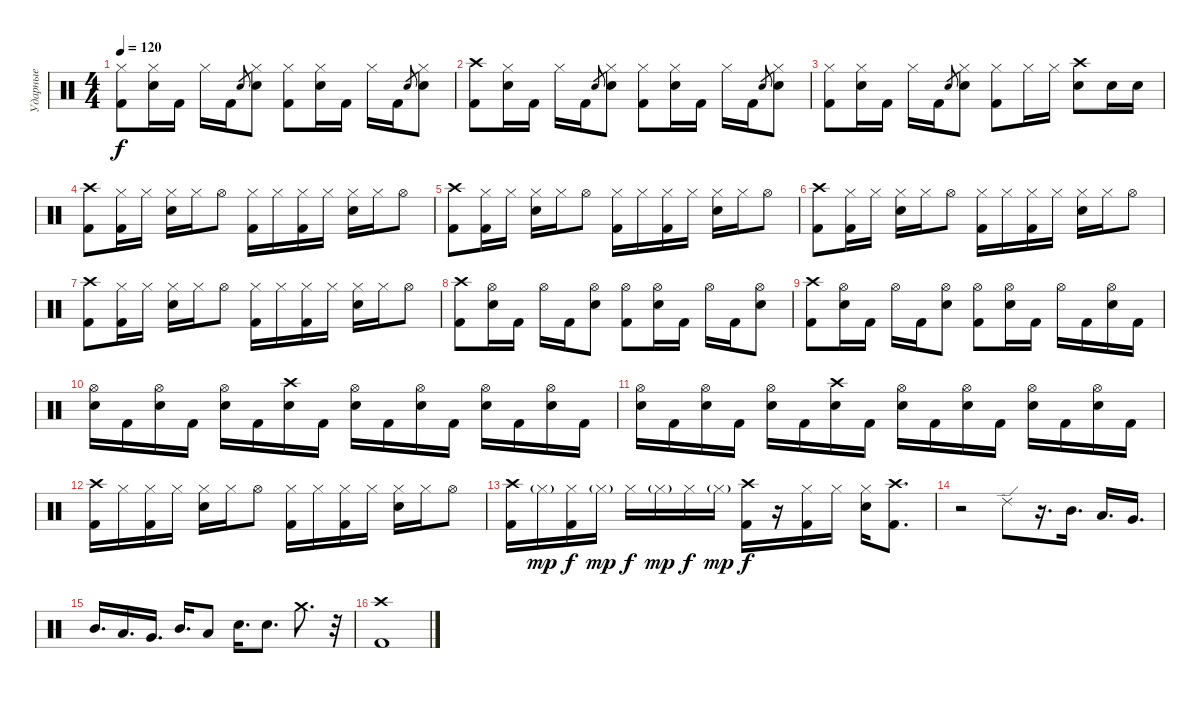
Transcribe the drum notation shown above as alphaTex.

\track ("Ударные" "Ударные") {instrument percussion}
\staff {score}
\articulation defaults
\ts (4 4)
\tempo 120
\clef neutral
\ks c
("Kick (hit) 2" "Hi-Hat (closed)").8{dy f} ("Electric Snare (hit)" "Hi-Hat (closed)").16 "Kick (hit) 2".16 "Hi-Hat (closed)".16 "Kick (hit) 2".16 "Electric Snare (hit)".8{gr} ("Electric Snare (hit)" "Hi-Hat (closed)").8 ("Kick (hit) 2" "Hi-Hat (closed)").8 ("Electric Snare (hit)" "Hi-Hat (closed)").16 "Kick (hit) 2".16 "Hi-Hat (closed)".16 "Kick (hit) 2".16 "Electric Snare (hit)".8{gr} ("Electric Snare (hit)" "Hi-Hat (closed)").8 |
("Kick (hit) 2" "Crash high (hit)").8 ("Electric Snare (hit)" "Hi-Hat (closed)").16 "Kick (hit) 2".16 "Hi-Hat (closed)".16 "Kick (hit) 2".16 "Electric Snare (hit)".8{gr} ("Electric Snare (hit)" "Hi-Hat (closed)").8 ("Kick (hit) 2" "Hi-Hat (closed)").8 ("Electric Snare (hit)" "Hi-Hat (closed)").16 "Kick (hit) 2".16 "Hi-Hat (closed)".16 "Kick (hit) 2".16 "Electric Snare (hit)".8{gr} ("Electric Snare (hit)" "Hi-Hat (closed)").8 |
("Kick (hit) 2" "Hi-Hat (closed)").8 ("Electric Snare (hit)" "Hi-Hat (closed)").16 "Kick (hit) 2".16 "Hi-Hat (closed)".16 "Kick (hit) 2".16 "Electric Snare (hit)".8{gr} ("Electric Snare (hit)" "Hi-Hat (closed)").8 ("Kick (hit) 2" "Hi-Hat (closed)").8 "Hi-Hat (closed)".16 "Hi-Hat (closed)".16 ("Electric Snare (hit)" "Crash high (hit)").8 "Electric Snare (hit)".16 "Electric Snare (hit)".16 |
("Kick (hit) 2" "Crash high (hit)").8 ("Kick (hit) 2" "Hi-Hat (closed)").16 "Hi-Hat (closed)".16 ("Electric Snare (hit)" "Hi-Hat (closed)").16 "Hi-Hat (closed)".16 "Hi-Hat (open)".8 ("Kick (hit) 2" "Hi-Hat (closed)").16 "Hi-Hat (closed)".16 ("Kick (hit) 2" "Hi-Hat (closed)").16 "Hi-Hat (closed)".16 ("Electric Snare (hit)" "Hi-Hat (closed)").16 "Hi-Hat (closed)".16 "Hi-Hat (open)".8 |
("Kick (hit) 2" "Crash high (hit)").8 ("Kick (hit) 2" "Hi-Hat (closed)").16 "Hi-Hat (closed)".16 ("Electric Snare (hit)" "Hi-Hat (closed)").16 "Hi-Hat (closed)".16 "Hi-Hat (open)".8 ("Kick (hit) 2" "Hi-Hat (closed)").16 "Hi-Hat (closed)".16 ("Kick (hit) 2" "Hi-Hat (closed)").16 "Hi-Hat (closed)".16 ("Electric Snare (hit)" "Hi-Hat (closed)").16 "Hi-Hat (closed)".16 "Hi-Hat (open)".8 |
("Kick (hit) 2" "Crash high (hit)").8 ("Kick (hit) 2" "Hi-Hat (closed)").16 "Hi-Hat (closed)".16 ("Electric Snare (hit)" "Hi-Hat (closed)").16 "Hi-Hat (closed)".16 "Hi-Hat (open)".8 ("Kick (hit) 2" "Hi-Hat (closed)").16 "Hi-Hat (closed)".16 ("Kick (hit) 2" "Hi-Hat (closed)").16 "Hi-Hat (closed)".16 ("Electric Snare (hit)" "Hi-Hat (closed)").16 "Hi-Hat (closed)".16 "Hi-Hat (open)".8 |
("Kick (hit) 2" "Crash high (hit)").8 ("Kick (hit) 2" "Hi-Hat (closed)").16 "Hi-Hat (closed)".16 ("Electric Snare (hit)" "Hi-Hat (closed)").16 "Hi-Hat (closed)".16 "Hi-Hat (open)".8 ("Kick (hit) 2" "Hi-Hat (closed)").16 "Hi-Hat (closed)".16 ("Kick (hit) 2" "Hi-Hat (closed)").16 "Hi-Hat (closed)".16 ("Electric Snare (hit)" "Hi-Hat (closed)").16 "Hi-Hat (closed)".16 "Hi-Hat (open)".8 |
("Kick (hit) 2" "Crash high (hit)").8 ("Electric Snare (hit)" "Hi-Hat (open)").16 "Kick (hit) 2".16 "Hi-Hat (open)".16 "Kick (hit) 2".16 ("Electric Snare (hit)" "Hi-Hat (open)").8 ("Kick (hit) 2" "Hi-Hat (open)").8 ("Electric Snare (hit)" "Hi-Hat (open)").16 "Kick (hit) 2".16 "Hi-Hat (open)".16 "Kick (hit) 2".16 ("Electric Snare (hit)" "Hi-Hat (open)").8 |
("Kick (hit) 2" "Crash high (hit)").8 ("Electric Snare (hit)" "Hi-Hat (open)").16 "Kick (hit) 2".16 "Hi-Hat (open)".16 "Kick (hit) 2".16 ("Electric Snare (hit)" "Hi-Hat (open)").8 ("Kick (hit) 2" "Hi-Hat (open)").8 ("Electric Snare (hit)" "Hi-Hat (open)").16 "Kick (hit) 2".16 "Hi-Hat (open)".16 "Kick (hit) 2".16 ("Electric Snare (hit)" "Hi-Hat (open)").16 "Kick (hit) 2".16 |
("Electric Snare (hit)" "Hi-Hat (open)").16 "Kick (hit) 2".16 ("Electric Snare (hit)" "Hi-Hat (open)").16 "Kick (hit) 2".16 ("Electric Snare (hit)" "Hi-Hat (open)").16 "Kick (hit) 2".16 ("Electric Snare (hit)" "Crash high (hit)").16 "Kick (hit) 2".16 ("Electric Snare (hit)" "Hi-Hat (open)").16 "Kick (hit) 2".16 ("Electric Snare (hit)" "Hi-Hat (open)").16 "Kick (hit) 2".16 ("Electric Snare (hit)" "Hi-Hat (open)").16 "Kick (hit) 2".16 ("Electric Snare (hit)" "Hi-Hat (open)").16 "Kick (hit) 2".16 |
("Electric Snare (hit)" "Hi-Hat (open)").16 "Kick (hit) 2".16 ("Electric Snare (hit)" "Hi-Hat (open)").16 "Kick (hit) 2".16 ("Electric Snare (hit)" "Hi-Hat (open)").16 "Kick (hit) 2".16 ("Electric Snare (hit)" "Crash high (hit)").16 "Kick (hit) 2".16 ("Electric Snare (hit)" "Hi-Hat (open)").16 "Kick (hit) 2".16 ("Electric Snare (hit)" "Hi-Hat (open)").16 "Kick (hit) 2".16 ("Electric Snare (hit)" "Hi-Hat (open)").16 "Kick (hit) 2".16 ("Electric Snare (hit)" "Hi-Hat (open)").16 "Kick (hit) 2".16 |
("Kick (hit) 2" "Crash high (hit)").16 "Hi-Hat (closed)".16 ("Kick (hit) 2" "Hi-Hat (closed)").16 "Hi-Hat (closed)".16 ("Electric Snare (hit)" "Hi-Hat (closed)").16 "Hi-Hat (closed)".16 "Hi-Hat (open)".8 ("Kick (hit) 2" "Hi-Hat (closed)").16 "Hi-Hat (closed)".16 ("Kick (hit) 2" "Hi-Hat (closed)").16 "Hi-Hat (closed)".16 ("Electric Snare (hit)" "Hi-Hat (closed)").16 "Hi-Hat (closed)".16 "Hi-Hat (open)".8 |
("Kick (hit) 2" "Crash high (hit)").16 "Hi-Hat (closed)"{g}.16{dy mp} ("Kick (hit) 2" "Hi-Hat (closed)").16{dy f} "Hi-Hat (closed)"{g}.16{dy mp} "Hi-Hat (closed)".16{dy f} "Hi-Hat (closed)"{g}.16{dy mp} "Hi-Hat (closed)".16{dy f} "Hi-Hat (closed)"{g}.16{dy mp} ("Kick (hit) 2" "Crash high (hit)").16{dy f} r.16 ("Kick (hit) 2" "Hi-Hat (closed)").16 "Hi-Hat (closed)".16 ("Electric Snare (hit)" "Hi-Hat (closed)").16 ("Kick (hit) 2" "Crash high (hit)").8{d} |
r.2 "Ride (edge) 2".8 r.16{d} "Mid Tom (hit)".16{d} "Low Tom (hit)".16{d} "Very Low Tom (hit)".16{d} |
"Mid Tom (hit)".16{d} "Low Tom (hit)".16{d} "Very Low Tom (hit)".16{d} "Mid Tom (hit)".16{d} "Low Tom (hit)".8 "Electric Snare (hit)".16{d} "Electric Snare (hit)".8{d} "Crash medium (hit)".8{d} r.32 |
("Kick (hit) 2" "Crash high (hit)").1
